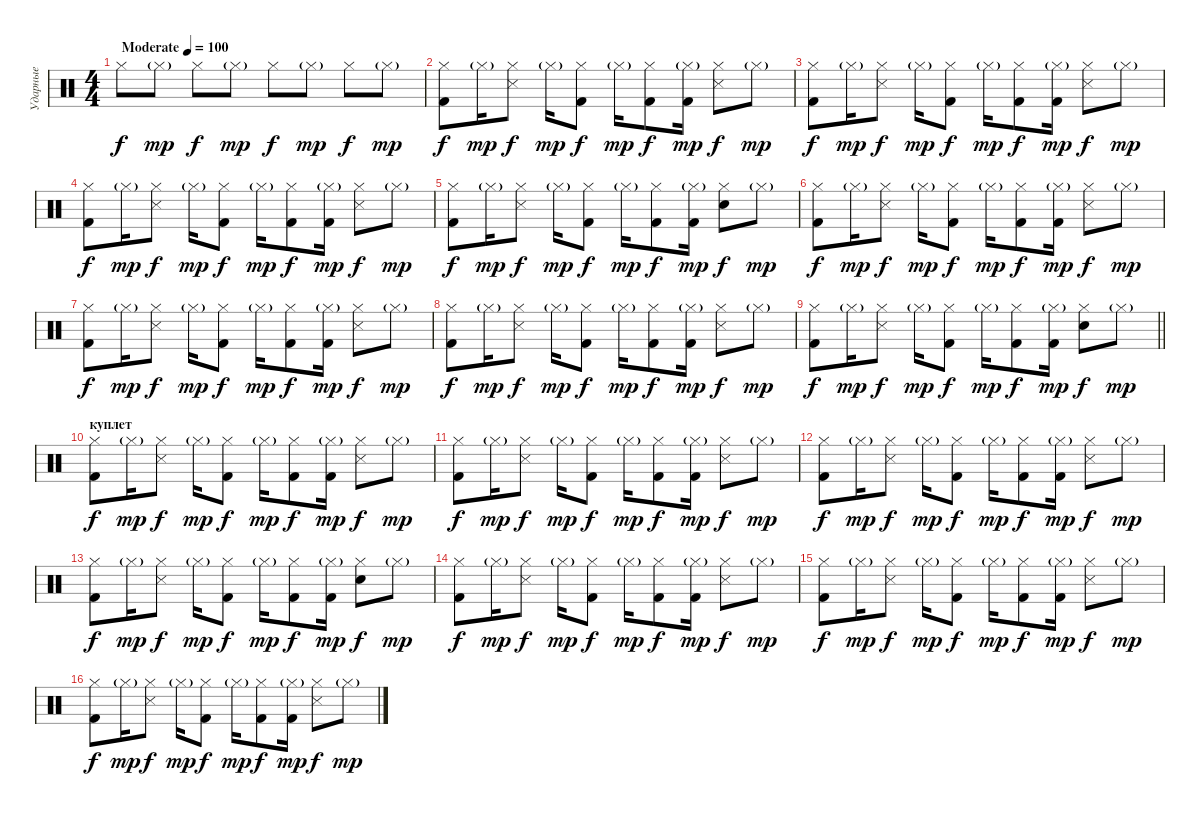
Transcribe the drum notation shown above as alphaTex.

\track ("Ударные" "Ударные") {instrument percussion}
\staff {score}
\articulation defaults
\ts (4 4)
\tempo (100 "Moderate")
\clef neutral
\ks c "Hi-Hat (closed)".8{dy f} "Hi-Hat (closed)"{g}.8{dy mp} "Hi-Hat (closed)".8{dy f} "Hi-Hat (closed)"{g}.8{dy mp} "Hi-Hat (closed)".8{dy f} "Hi-Hat (closed)"{g}.8{dy mp} "Hi-Hat (closed)".8{dy f} "Hi-Hat (closed)"{g}.8{dy mp}
|
("Kick (hit) 2" "Hi-Hat (closed)").8{dy f} "Hi-Hat (closed)"{g}.16{dy mp} ("Snare (side stick) 3" "Hi-Hat (closed)").8{dy f} "Hi-Hat (closed)"{g}.16{dy mp} ("Kick (hit) 2" "Hi-Hat (closed)").8{dy f} "Hi-Hat (closed)"{g}.16{dy mp} ("Kick (hit) 2" "Hi-Hat (closed)").8{dy f} ("Kick (hit) 2" "Hi-Hat (closed)"{g}).16{dy mp} ("Snare (side stick) 3" "Hi-Hat (closed)").8{dy f} "Hi-Hat (closed)"{g}.8{dy mp} |
("Kick (hit) 2" "Hi-Hat (closed)").8{dy f} "Hi-Hat (closed)"{g}.16{dy mp} ("Snare (side stick) 3" "Hi-Hat (closed)").8{dy f} "Hi-Hat (closed)"{g}.16{dy mp} ("Kick (hit) 2" "Hi-Hat (closed)").8{dy f} "Hi-Hat (closed)"{g}.16{dy mp} ("Kick (hit) 2" "Hi-Hat (closed)").8{dy f} ("Kick (hit) 2" "Hi-Hat (closed)"{g}).16{dy mp} ("Snare (side stick) 3" "Hi-Hat (closed)").8{dy f} "Hi-Hat (closed)"{g}.8{dy mp} |
("Kick (hit) 2" "Hi-Hat (closed)").8{dy f} "Hi-Hat (closed)"{g}.16{dy mp} ("Snare (side stick) 3" "Hi-Hat (closed)").8{dy f} "Hi-Hat (closed)"{g}.16{dy mp} ("Kick (hit) 2" "Hi-Hat (closed)").8{dy f} "Hi-Hat (closed)"{g}.16{dy mp} ("Kick (hit) 2" "Hi-Hat (closed)").8{dy f} ("Kick (hit) 2" "Hi-Hat (closed)"{g}).16{dy mp} ("Snare (side stick) 3" "Hi-Hat (closed)").8{dy f} "Hi-Hat (closed)"{g}.8{dy mp} |
("Kick (hit) 2" "Hi-Hat (closed)").8{dy f} "Hi-Hat (closed)"{g}.16{dy mp} ("Snare (side stick) 3" "Hi-Hat (closed)").8{dy f} "Hi-Hat (closed)"{g}.16{dy mp} ("Kick (hit) 2" "Hi-Hat (closed)").8{dy f} "Hi-Hat (closed)"{g}.16{dy mp} ("Kick (hit) 2" "Hi-Hat (closed)").8{dy f} ("Kick (hit) 2" "Hi-Hat (closed)"{g}).16{dy mp} ("Snare (hit) 2" "Hi-Hat (closed)").8{dy f} "Hi-Hat (closed)"{g}.8{dy mp} |
("Kick (hit) 2" "Hi-Hat (closed)").8{dy f} "Hi-Hat (closed)"{g}.16{dy mp} ("Snare (side stick) 3" "Hi-Hat (closed)").8{dy f} "Hi-Hat (closed)"{g}.16{dy mp} ("Kick (hit) 2" "Hi-Hat (closed)").8{dy f} "Hi-Hat (closed)"{g}.16{dy mp} ("Kick (hit) 2" "Hi-Hat (closed)").8{dy f} ("Kick (hit) 2" "Hi-Hat (closed)"{g}).16{dy mp} ("Snare (side stick) 3" "Hi-Hat (closed)").8{dy f} "Hi-Hat (closed)"{g}.8{dy mp} |
("Kick (hit) 2" "Hi-Hat (closed)").8{dy f} "Hi-Hat (closed)"{g}.16{dy mp} ("Snare (side stick) 3" "Hi-Hat (closed)").8{dy f} "Hi-Hat (closed)"{g}.16{dy mp} ("Kick (hit) 2" "Hi-Hat (closed)").8{dy f} "Hi-Hat (closed)"{g}.16{dy mp} ("Kick (hit) 2" "Hi-Hat (closed)").8{dy f} ("Kick (hit) 2" "Hi-Hat (closed)"{g}).16{dy mp} ("Snare (side stick) 3" "Hi-Hat (closed)").8{dy f} "Hi-Hat (closed)"{g}.8{dy mp} |
("Kick (hit) 2" "Hi-Hat (closed)").8{dy f} "Hi-Hat (closed)"{g}.16{dy mp} ("Snare (side stick) 3" "Hi-Hat (closed)").8{dy f} "Hi-Hat (closed)"{g}.16{dy mp} ("Kick (hit) 2" "Hi-Hat (closed)").8{dy f} "Hi-Hat (closed)"{g}.16{dy mp} ("Kick (hit) 2" "Hi-Hat (closed)").8{dy f} ("Kick (hit) 2" "Hi-Hat (closed)"{g}).16{dy mp} ("Snare (side stick) 3" "Hi-Hat (closed)").8{dy f} "Hi-Hat (closed)"{g}.8{dy mp} |
\barLineRight lightlight
("Kick (hit) 2" "Hi-Hat (closed)").8{dy f} "Hi-Hat (closed)"{g}.16{dy mp} ("Snare (side stick) 3" "Hi-Hat (closed)").8{dy f} "Hi-Hat (closed)"{g}.16{dy mp} ("Kick (hit) 2" "Hi-Hat (closed)").8{dy f} "Hi-Hat (closed)"{g}.16{dy mp} ("Kick (hit) 2" "Hi-Hat (closed)").8{dy f} ("Kick (hit) 2" "Hi-Hat (closed)"{g}).16{dy mp} ("Snare (hit) 2" "Hi-Hat (closed)").8{dy f} "Hi-Hat (closed)"{g}.8{dy mp} |
\section ("" "куплет")
("Kick (hit) 2" "Hi-Hat (closed)").8{dy f} "Hi-Hat (closed)"{g}.16{dy mp} ("Snare (side stick) 3" "Hi-Hat (closed)").8{dy f} "Hi-Hat (closed)"{g}.16{dy mp} ("Kick (hit) 2" "Hi-Hat (closed)").8{dy f} "Hi-Hat (closed)"{g}.16{dy mp} ("Kick (hit) 2" "Hi-Hat (closed)").8{dy f} ("Kick (hit) 2" "Hi-Hat (closed)"{g}).16{dy mp} ("Snare (side stick) 3" "Hi-Hat (closed)").8{dy f} "Hi-Hat (closed)"{g}.8{dy mp} |
("Kick (hit) 2" "Hi-Hat (closed)").8{dy f} "Hi-Hat (closed)"{g}.16{dy mp} ("Snare (side stick) 3" "Hi-Hat (closed)").8{dy f} "Hi-Hat (closed)"{g}.16{dy mp} ("Kick (hit) 2" "Hi-Hat (closed)").8{dy f} "Hi-Hat (closed)"{g}.16{dy mp} ("Kick (hit) 2" "Hi-Hat (closed)").8{dy f} ("Kick (hit) 2" "Hi-Hat (closed)"{g}).16{dy mp} ("Snare (side stick) 3" "Hi-Hat (closed)").8{dy f} "Hi-Hat (closed)"{g}.8{dy mp} |
("Kick (hit) 2" "Hi-Hat (closed)").8{dy f} "Hi-Hat (closed)"{g}.16{dy mp} ("Snare (side stick) 3" "Hi-Hat (closed)").8{dy f} "Hi-Hat (closed)"{g}.16{dy mp} ("Kick (hit) 2" "Hi-Hat (closed)").8{dy f} "Hi-Hat (closed)"{g}.16{dy mp} ("Kick (hit) 2" "Hi-Hat (closed)").8{dy f} ("Kick (hit) 2" "Hi-Hat (closed)"{g}).16{dy mp} ("Snare (side stick) 3" "Hi-Hat (closed)").8{dy f} "Hi-Hat (closed)"{g}.8{dy mp} |
("Kick (hit) 2" "Hi-Hat (closed)").8{dy f} "Hi-Hat (closed)"{g}.16{dy mp} ("Snare (side stick) 3" "Hi-Hat (closed)").8{dy f} "Hi-Hat (closed)"{g}.16{dy mp} ("Kick (hit) 2" "Hi-Hat (closed)").8{dy f} "Hi-Hat (closed)"{g}.16{dy mp} ("Kick (hit) 2" "Hi-Hat (closed)").8{dy f} ("Kick (hit) 2" "Hi-Hat (closed)"{g}).16{dy mp} ("Snare (hit) 2" "Hi-Hat (closed)").8{dy f} "Hi-Hat (closed)"{g}.8{dy mp} |
("Kick (hit) 2" "Hi-Hat (closed)").8{dy f} "Hi-Hat (closed)"{g}.16{dy mp} ("Snare (side stick) 3" "Hi-Hat (closed)").8{dy f} "Hi-Hat (closed)"{g}.16{dy mp} ("Kick (hit) 2" "Hi-Hat (closed)").8{dy f} "Hi-Hat (closed)"{g}.16{dy mp} ("Kick (hit) 2" "Hi-Hat (closed)").8{dy f} ("Kick (hit) 2" "Hi-Hat (closed)"{g}).16{dy mp} ("Snare (side stick) 3" "Hi-Hat (closed)").8{dy f} "Hi-Hat (closed)"{g}.8{dy mp} |
("Kick (hit) 2" "Hi-Hat (closed)").8{dy f} "Hi-Hat (closed)"{g}.16{dy mp} ("Snare (side stick) 3" "Hi-Hat (closed)").8{dy f} "Hi-Hat (closed)"{g}.16{dy mp} ("Kick (hit) 2" "Hi-Hat (closed)").8{dy f} "Hi-Hat (closed)"{g}.16{dy mp} ("Kick (hit) 2" "Hi-Hat (closed)").8{dy f} ("Kick (hit) 2" "Hi-Hat (closed)"{g}).16{dy mp} ("Snare (side stick) 3" "Hi-Hat (closed)").8{dy f} "Hi-Hat (closed)"{g}.8{dy mp} |
("Kick (hit) 2" "Hi-Hat (closed)").8{dy f} "Hi-Hat (closed)"{g}.16{dy mp} ("Snare (side stick) 3" "Hi-Hat (closed)").8{dy f} "Hi-Hat (closed)"{g}.16{dy mp} ("Kick (hit) 2" "Hi-Hat (closed)").8{dy f} "Hi-Hat (closed)"{g}.16{dy mp} ("Kick (hit) 2" "Hi-Hat (closed)").8{dy f} ("Kick (hit) 2" "Hi-Hat (closed)"{g}).16{dy mp} ("Snare (side stick) 3" "Hi-Hat (closed)").8{dy f} "Hi-Hat (closed)"{g}.8{dy mp}
